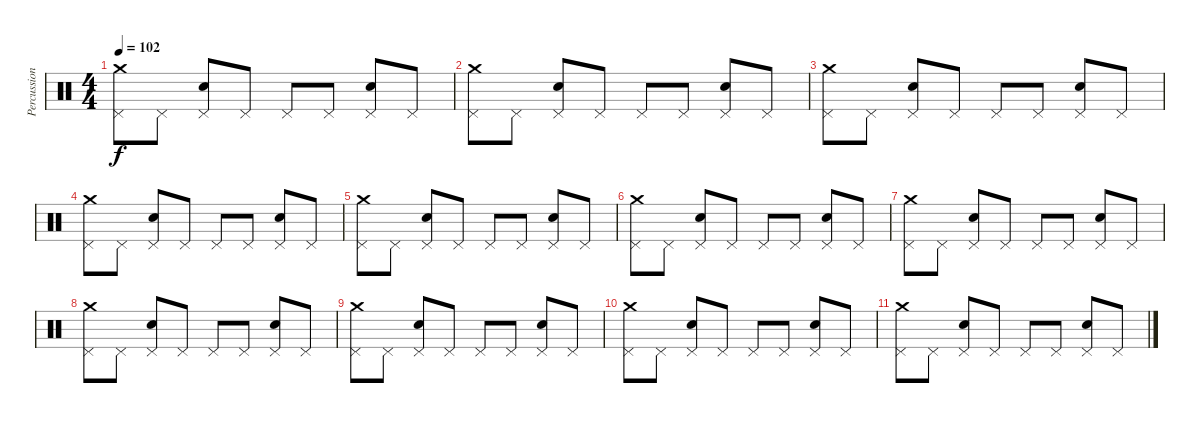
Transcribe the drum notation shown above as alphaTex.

\track ("Percussion" "Percussion") {instrument percussion}
\staff {score}
\articulation defaults
\ts (4 4)
\tempo 102
\clef neutral
\ks c
("Crash medium (hit)" "Pedal Hi-Hat (hit)").8{dy f} "Pedal Hi-Hat (hit)".8 ("Electric Snare (hit)" "Pedal Hi-Hat (hit)").8 "Pedal Hi-Hat (hit)".8 "Pedal Hi-Hat (hit)".8 "Pedal Hi-Hat (hit)".8 ("Electric Snare (hit)" "Pedal Hi-Hat (hit)").8 "Pedal Hi-Hat (hit)".8 |
("Crash medium (hit)" "Pedal Hi-Hat (hit)").8 "Pedal Hi-Hat (hit)".8 ("Electric Snare (hit)" "Pedal Hi-Hat (hit)").8 "Pedal Hi-Hat (hit)".8 "Pedal Hi-Hat (hit)".8 "Pedal Hi-Hat (hit)".8 ("Electric Snare (hit)" "Pedal Hi-Hat (hit)").8 "Pedal Hi-Hat (hit)".8 |
("Crash medium (hit)" "Pedal Hi-Hat (hit)").8 "Pedal Hi-Hat (hit)".8 ("Electric Snare (hit)" "Pedal Hi-Hat (hit)").8 "Pedal Hi-Hat (hit)".8 "Pedal Hi-Hat (hit)".8 "Pedal Hi-Hat (hit)".8 ("Electric Snare (hit)" "Pedal Hi-Hat (hit)").8 "Pedal Hi-Hat (hit)".8 |
("Crash medium (hit)" "Pedal Hi-Hat (hit)").8 "Pedal Hi-Hat (hit)".8 ("Electric Snare (hit)" "Pedal Hi-Hat (hit)").8 "Pedal Hi-Hat (hit)".8 "Pedal Hi-Hat (hit)".8 "Pedal Hi-Hat (hit)".8 ("Electric Snare (hit)" "Pedal Hi-Hat (hit)").8 "Pedal Hi-Hat (hit)".8 |
("Crash medium (hit)" "Pedal Hi-Hat (hit)").8 "Pedal Hi-Hat (hit)".8 ("Electric Snare (hit)" "Pedal Hi-Hat (hit)").8 "Pedal Hi-Hat (hit)".8 "Pedal Hi-Hat (hit)".8 "Pedal Hi-Hat (hit)".8 ("Electric Snare (hit)" "Pedal Hi-Hat (hit)").8 "Pedal Hi-Hat (hit)".8 |
("Crash medium (hit)" "Pedal Hi-Hat (hit)").8 "Pedal Hi-Hat (hit)".8 ("Electric Snare (hit)" "Pedal Hi-Hat (hit)").8 "Pedal Hi-Hat (hit)".8 "Pedal Hi-Hat (hit)".8 "Pedal Hi-Hat (hit)".8 ("Electric Snare (hit)" "Pedal Hi-Hat (hit)").8 "Pedal Hi-Hat (hit)".8 |
("Crash medium (hit)" "Pedal Hi-Hat (hit)").8 "Pedal Hi-Hat (hit)".8 ("Electric Snare (hit)" "Pedal Hi-Hat (hit)").8 "Pedal Hi-Hat (hit)".8 "Pedal Hi-Hat (hit)".8 "Pedal Hi-Hat (hit)".8 ("Electric Snare (hit)" "Pedal Hi-Hat (hit)").8 "Pedal Hi-Hat (hit)".8 |
("Crash medium (hit)" "Pedal Hi-Hat (hit)").8 "Pedal Hi-Hat (hit)".8 ("Electric Snare (hit)" "Pedal Hi-Hat (hit)").8 "Pedal Hi-Hat (hit)".8 "Pedal Hi-Hat (hit)".8 "Pedal Hi-Hat (hit)".8 ("Electric Snare (hit)" "Pedal Hi-Hat (hit)").8 "Pedal Hi-Hat (hit)".8 |
("Crash medium (hit)" "Pedal Hi-Hat (hit)").8 "Pedal Hi-Hat (hit)".8 ("Electric Snare (hit)" "Pedal Hi-Hat (hit)").8 "Pedal Hi-Hat (hit)".8 "Pedal Hi-Hat (hit)".8 "Pedal Hi-Hat (hit)".8 ("Electric Snare (hit)" "Pedal Hi-Hat (hit)").8 "Pedal Hi-Hat (hit)".8 |
("Crash medium (hit)" "Pedal Hi-Hat (hit)").8 "Pedal Hi-Hat (hit)".8 ("Electric Snare (hit)" "Pedal Hi-Hat (hit)").8 "Pedal Hi-Hat (hit)".8 "Pedal Hi-Hat (hit)".8 "Pedal Hi-Hat (hit)".8 ("Electric Snare (hit)" "Pedal Hi-Hat (hit)").8 "Pedal Hi-Hat (hit)".8 |
("Crash medium (hit)" "Pedal Hi-Hat (hit)").8 "Pedal Hi-Hat (hit)".8 ("Electric Snare (hit)" "Pedal Hi-Hat (hit)").8 "Pedal Hi-Hat (hit)".8 "Pedal Hi-Hat (hit)".8 "Pedal Hi-Hat (hit)".8 ("Electric Snare (hit)" "Pedal Hi-Hat (hit)").8 "Pedal Hi-Hat (hit)".8
